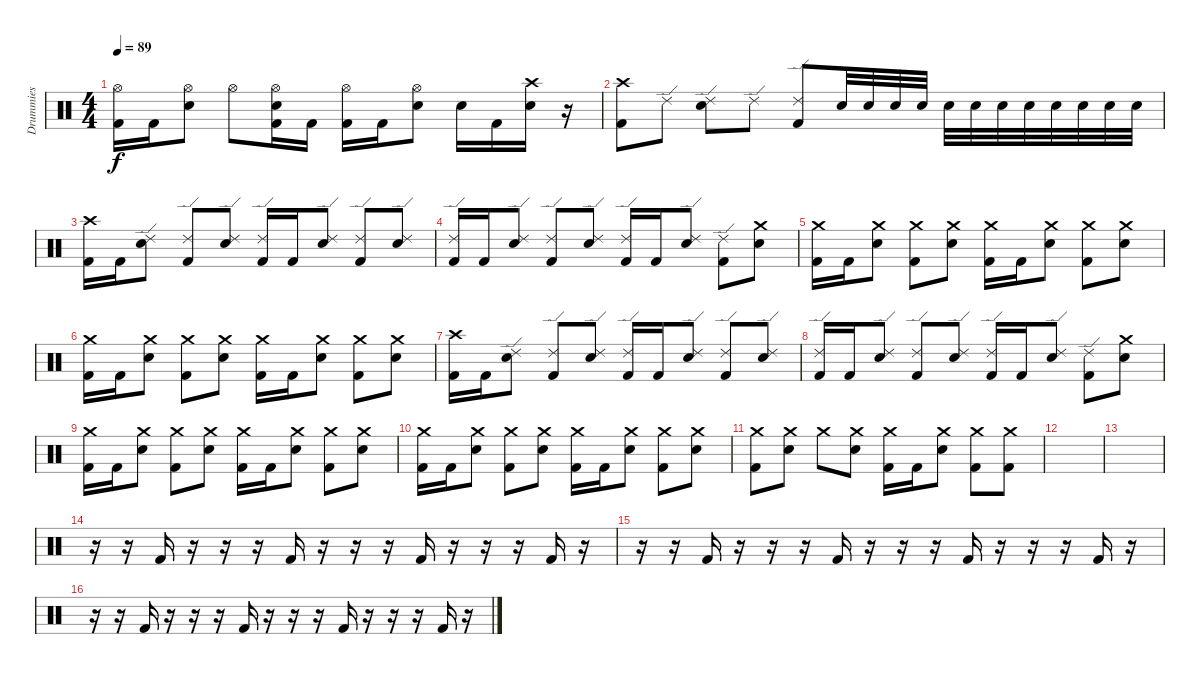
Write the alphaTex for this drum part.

\track ("Drummies" "Drummies") {instrument percussion}
\staff {score}
\articulation defaults
\ts (4 4)
\tempo 89
\clef neutral
\ks c
("Hi-Hat (open)" "Kick (hit) 2").16{dy f} "Kick (hit) 2".16 ("Hi-Hat (open)" "Electric Snare (hit)").8 "Hi-Hat (open)".8 ("Hi-Hat (open)" "Kick (hit) 2" "Electric Snare (hit)").16 "Kick (hit) 2".16 ("Hi-Hat (open)" "Kick (hit) 2").16 "Kick (hit) 2".16 ("Hi-Hat (open)" "Electric Snare (hit)").8 "Electric Snare (hit)".16 "Kick (hit) 2".16 ("Crash high (hit)" "Electric Snare (hit)").16 r.16 |
("Crash high (hit)" "Kick (hit) 2").8 "Ride (edge) 2".8 ("Ride (edge) 2" "Electric Snare (hit)").8 "Ride (edge) 2".8 ("Ride (edge) 2" "Kick (hit) 2").8 "Electric Snare (hit)".32 "Electric Snare (hit)".32 "Electric Snare (hit)".32 "Electric Snare (hit)".32 "Electric Snare (hit)".32 "Electric Snare (hit)".32 "Electric Snare (hit)".32 "Electric Snare (hit)".32 "Electric Snare (hit)".32 "Electric Snare (hit)".32 "Electric Snare (hit)".32 "Electric Snare (hit)".32 |
("Crash high (hit)" "Kick (hit) 2").16 "Kick (hit) 2".16 ("Ride (edge) 2" "Electric Snare (hit)").8 ("Ride (edge) 2" "Kick (hit) 2").8 ("Ride (edge) 2" "Electric Snare (hit)").8 ("Ride (edge) 2" "Kick (hit) 2").16 "Kick (hit) 2".16 ("Ride (edge) 2" "Electric Snare (hit)").8 ("Ride (edge) 2" "Kick (hit) 2").8 ("Ride (edge) 2" "Electric Snare (hit)").8 |
("Ride (edge) 2" "Kick (hit) 2").16 "Kick (hit) 2".16 ("Ride (edge) 2" "Electric Snare (hit)").8 ("Ride (edge) 2" "Kick (hit) 2").8 ("Ride (edge) 2" "Electric Snare (hit)").8 ("Ride (edge) 2" "Kick (hit) 2").16 "Kick (hit) 2".16 ("Ride (edge) 2" "Electric Snare (hit)").8 ("Ride (edge) 2" "Kick (hit) 2").8 ("Crash medium (hit)" "Electric Snare (hit)").8 |
("Crash medium (hit)" "Kick (hit) 2").16 "Kick (hit) 2".16 ("Crash medium (hit)" "Electric Snare (hit)").8 ("Crash medium (hit)" "Kick (hit) 2").8 ("Crash medium (hit)" "Electric Snare (hit)").8 ("Crash medium (hit)" "Kick (hit) 2").16 "Kick (hit) 2".16 ("Crash medium (hit)" "Electric Snare (hit)").8 ("Crash medium (hit)" "Kick (hit) 2").8 ("Crash medium (hit)" "Electric Snare (hit)").8 |
("Crash medium (hit)" "Kick (hit) 2").16 "Kick (hit) 2".16 ("Crash medium (hit)" "Electric Snare (hit)").8 ("Crash medium (hit)" "Kick (hit) 2").8 ("Crash medium (hit)" "Electric Snare (hit)").8 ("Crash medium (hit)" "Kick (hit) 2").16 "Kick (hit) 2".16 ("Crash medium (hit)" "Electric Snare (hit)").8 ("Crash medium (hit)" "Kick (hit) 2").8 ("Crash medium (hit)" "Electric Snare (hit)").8 |
("Crash high (hit)" "Kick (hit) 2").16 "Kick (hit) 2".16 ("Ride (edge) 2" "Electric Snare (hit)").8 ("Ride (edge) 2" "Kick (hit) 2").8 ("Ride (edge) 2" "Electric Snare (hit)").8 ("Ride (edge) 2" "Kick (hit) 2").16 "Kick (hit) 2".16 ("Ride (edge) 2" "Electric Snare (hit)").8 ("Ride (edge) 2" "Kick (hit) 2").8 ("Ride (edge) 2" "Electric Snare (hit)").8 |
("Ride (edge) 2" "Kick (hit) 2").16 "Kick (hit) 2".16 ("Ride (edge) 2" "Electric Snare (hit)").8 ("Ride (edge) 2" "Kick (hit) 2").8 ("Ride (edge) 2" "Electric Snare (hit)").8 ("Ride (edge) 2" "Kick (hit) 2").16 "Kick (hit) 2".16 ("Ride (edge) 2" "Electric Snare (hit)").8 ("Ride (edge) 2" "Kick (hit) 2").8 ("Crash medium (hit)" "Electric Snare (hit)").8 |
("Crash medium (hit)" "Kick (hit) 2").16 "Kick (hit) 2".16 ("Crash medium (hit)" "Electric Snare (hit)").8 ("Crash medium (hit)" "Kick (hit) 2").8 ("Crash medium (hit)" "Electric Snare (hit)").8 ("Crash medium (hit)" "Kick (hit) 2").16 "Kick (hit) 2".16 ("Crash medium (hit)" "Electric Snare (hit)").8 ("Crash medium (hit)" "Kick (hit) 2").8 ("Crash medium (hit)" "Electric Snare (hit)").8 |
("Crash medium (hit)" "Kick (hit) 2").16 "Kick (hit) 2".16 ("Crash medium (hit)" "Electric Snare (hit)").8 ("Crash medium (hit)" "Kick (hit) 2").8 ("Crash medium (hit)" "Electric Snare (hit)").8 ("Crash medium (hit)" "Kick (hit) 2").16 "Kick (hit) 2".16 ("Crash medium (hit)" "Electric Snare (hit)").8 ("Crash medium (hit)" "Kick (hit) 2").8 ("Crash medium (hit)" "Electric Snare (hit)").8 |
("Crash medium (hit)" "Kick (hit) 2").8 ("Crash medium (hit)" "Electric Snare (hit)").8 "Crash medium (hit)".8 ("Crash medium (hit)" "Electric Snare (hit)").8 ("Crash medium (hit)" "Kick (hit) 2").16 "Kick (hit) 2".16 ("Crash medium (hit)" "Electric Snare (hit)").8 ("Crash medium (hit)" "Kick (hit) 2").8 ("Crash medium (hit)" "Kick (hit) 2").8 |
|
|
r.16 r.16 "Kick (hit) 2".16 r.16 r.16 r.16 "Kick (hit) 2".16 r.16 r.16 r.16 "Kick (hit) 2".16 r.16 r.16 r.16 "Kick (hit) 2".16 r.16 |
r.16 r.16 "Kick (hit) 2".16 r.16 r.16 r.16 "Kick (hit) 2".16 r.16 r.16 r.16 "Kick (hit) 2".16 r.16 r.16 r.16 "Kick (hit) 2".16 r.16 |
r.16 r.16 "Kick (hit) 2".16 r.16 r.16 r.16 "Kick (hit) 2".16 r.16 r.16 r.16 "Kick (hit) 2".16 r.16 r.16 r.16 "Kick (hit) 2".16 r.16
